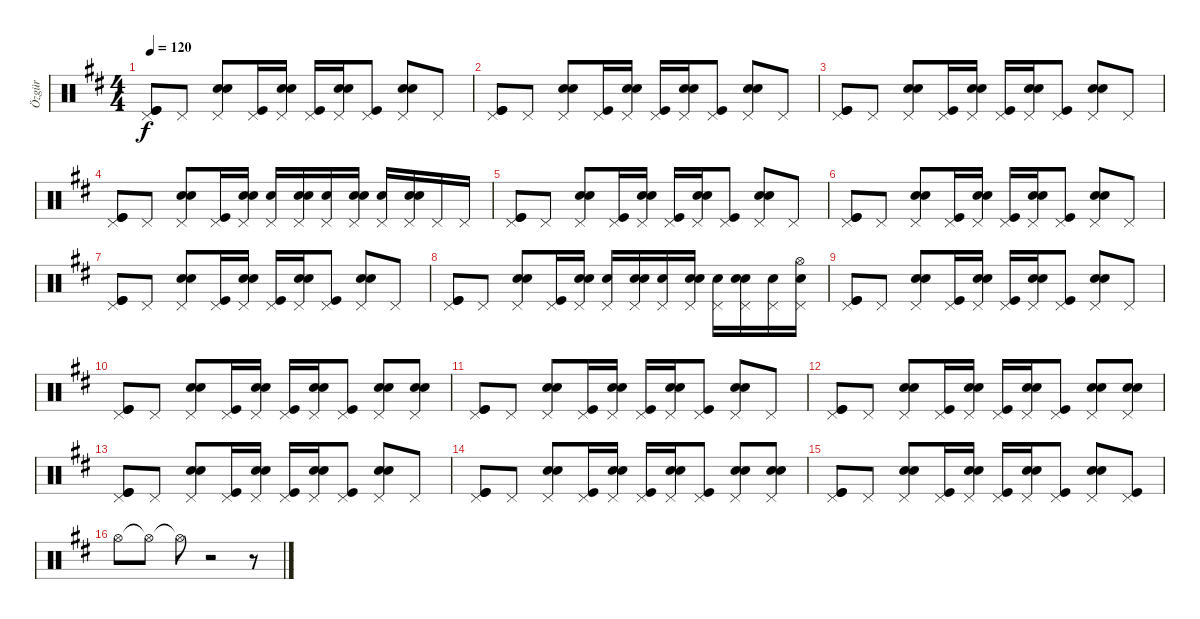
\track ("Özgür" "Özgür") {instrument percussion}
\staff {score}
\articulation defaults
\ts (4 4)
\tempo 120
\clef neutral
\ks d
("Pedal Hi-Hat (hit)" "Kick (hit)" "Kick (hit)").8{dy f} "Pedal Hi-Hat (hit)".8 ("Pedal Hi-Hat (hit)" "Electric Snare (hit)" "Electric Snare (hit)").8 ("Pedal Hi-Hat (hit)" "Kick (hit)").16 ("Pedal Hi-Hat (hit)" "Electric Snare (hit)" "Electric Snare (hit)").16 ("Pedal Hi-Hat (hit)" "Kick (hit)").16 ("Pedal Hi-Hat (hit)" "Electric Snare (hit)" "Electric Snare (hit)").16 ("Pedal Hi-Hat (hit)" "Kick (hit)").8 ("Pedal Hi-Hat (hit)" "Electric Snare (hit)" "Electric Snare (hit)").8 "Pedal Hi-Hat (hit)".8 |
("Pedal Hi-Hat (hit)" "Kick (hit)" "Kick (hit)").8 "Pedal Hi-Hat (hit)".8 ("Pedal Hi-Hat (hit)" "Electric Snare (hit)" "Electric Snare (hit)").8 ("Pedal Hi-Hat (hit)" "Kick (hit)").16 ("Pedal Hi-Hat (hit)" "Electric Snare (hit)" "Electric Snare (hit)").16 ("Pedal Hi-Hat (hit)" "Kick (hit)").16 ("Pedal Hi-Hat (hit)" "Electric Snare (hit)" "Electric Snare (hit)").16 ("Pedal Hi-Hat (hit)" "Kick (hit)").8 ("Pedal Hi-Hat (hit)" "Electric Snare (hit)" "Electric Snare (hit)").8 "Pedal Hi-Hat (hit)".8 |
("Pedal Hi-Hat (hit)" "Kick (hit)" "Kick (hit)").8 "Pedal Hi-Hat (hit)".8 ("Pedal Hi-Hat (hit)" "Electric Snare (hit)" "Electric Snare (hit)").8 ("Pedal Hi-Hat (hit)" "Kick (hit)").16 ("Pedal Hi-Hat (hit)" "Electric Snare (hit)" "Electric Snare (hit)").16 ("Pedal Hi-Hat (hit)" "Kick (hit)").16 ("Pedal Hi-Hat (hit)" "Electric Snare (hit)" "Electric Snare (hit)").16 ("Pedal Hi-Hat (hit)" "Kick (hit)").8 ("Pedal Hi-Hat (hit)" "Electric Snare (hit)" "Electric Snare (hit)").8 "Pedal Hi-Hat (hit)".8 |
("Pedal Hi-Hat (hit)" "Kick (hit)" "Kick (hit)").8 "Pedal Hi-Hat (hit)".8 ("Pedal Hi-Hat (hit)" "Electric Snare (hit)" "Electric Snare (hit)").8 ("Pedal Hi-Hat (hit)" "Kick (hit)").16 ("Pedal Hi-Hat (hit)" "Electric Snare (hit)" "Electric Snare (hit)").16 ("Pedal Hi-Hat (hit)" "Electric Snare (hit)").16 ("Pedal Hi-Hat (hit)" "Electric Snare (hit)" "Electric Snare (hit)").16 ("Pedal Hi-Hat (hit)" "Electric Snare (hit)").16 ("Pedal Hi-Hat (hit)" "Electric Snare (hit)" "Electric Snare (hit)").16 ("Pedal Hi-Hat (hit)" "Electric Snare (hit)").16 ("Pedal Hi-Hat (hit)" "Electric Snare (hit)" "Electric Snare (hit)").16 "Pedal Hi-Hat (hit)".16 "Pedal Hi-Hat (hit)".16 |
("Pedal Hi-Hat (hit)" "Kick (hit)" "Kick (hit)").8 "Pedal Hi-Hat (hit)".8 ("Pedal Hi-Hat (hit)" "Electric Snare (hit)" "Electric Snare (hit)").8 ("Pedal Hi-Hat (hit)" "Kick (hit)").16 ("Pedal Hi-Hat (hit)" "Electric Snare (hit)" "Electric Snare (hit)").16 ("Pedal Hi-Hat (hit)" "Kick (hit)").16 ("Pedal Hi-Hat (hit)" "Electric Snare (hit)" "Electric Snare (hit)").16 ("Pedal Hi-Hat (hit)" "Kick (hit)").8 ("Pedal Hi-Hat (hit)" "Electric Snare (hit)" "Electric Snare (hit)").8 "Pedal Hi-Hat (hit)".8 |
("Pedal Hi-Hat (hit)" "Kick (hit)" "Kick (hit)").8 "Pedal Hi-Hat (hit)".8 ("Pedal Hi-Hat (hit)" "Electric Snare (hit)" "Electric Snare (hit)").8 ("Pedal Hi-Hat (hit)" "Kick (hit)").16 ("Pedal Hi-Hat (hit)" "Electric Snare (hit)" "Electric Snare (hit)").16 ("Pedal Hi-Hat (hit)" "Kick (hit)").16 ("Pedal Hi-Hat (hit)" "Electric Snare (hit)" "Electric Snare (hit)").16 ("Pedal Hi-Hat (hit)" "Kick (hit)").8 ("Pedal Hi-Hat (hit)" "Electric Snare (hit)" "Electric Snare (hit)").8 "Pedal Hi-Hat (hit)".8 |
("Pedal Hi-Hat (hit)" "Kick (hit)" "Kick (hit)").8 "Pedal Hi-Hat (hit)".8 ("Pedal Hi-Hat (hit)" "Electric Snare (hit)" "Electric Snare (hit)").8 ("Pedal Hi-Hat (hit)" "Kick (hit)").16 ("Pedal Hi-Hat (hit)" "Electric Snare (hit)" "Electric Snare (hit)").16 ("Pedal Hi-Hat (hit)" "Kick (hit)").16 ("Pedal Hi-Hat (hit)" "Electric Snare (hit)" "Electric Snare (hit)").16 ("Pedal Hi-Hat (hit)" "Kick (hit)").8 ("Pedal Hi-Hat (hit)" "Electric Snare (hit)" "Electric Snare (hit)").8 "Pedal Hi-Hat (hit)".8 |
("Pedal Hi-Hat (hit)" "Kick (hit)" "Kick (hit)").8 "Pedal Hi-Hat (hit)".8 ("Pedal Hi-Hat (hit)" "Electric Snare (hit)" "Electric Snare (hit)").8 ("Pedal Hi-Hat (hit)" "Kick (hit)").16 ("Pedal Hi-Hat (hit)" "Electric Snare (hit)" "Electric Snare (hit)").16 ("Pedal Hi-Hat (hit)" "Electric Snare (hit)").16 ("Pedal Hi-Hat (hit)" "Electric Snare (hit)" "Electric Snare (hit)").16 ("Pedal Hi-Hat (hit)" "Electric Snare (hit)").16 ("Pedal Hi-Hat (hit)" "Electric Snare (hit)" "Electric Snare (hit)").16 ("Pedal Hi-Hat (hit)" "Electric Snare (hit)").16 ("Pedal Hi-Hat (hit)" "Electric Snare (hit)" "Electric Snare (hit)").16 ("Pedal Hi-Hat (hit)" "Electric Snare (hit)").16 ("Pedal Hi-Hat (hit)" "Hi-Hat (open)" "Electric Snare (hit)").16 |
("Pedal Hi-Hat (hit)" "Kick (hit)" "Kick (hit)").8 "Pedal Hi-Hat (hit)".8 ("Pedal Hi-Hat (hit)" "Electric Snare (hit)" "Electric Snare (hit)").8 ("Pedal Hi-Hat (hit)" "Kick (hit)").16 ("Pedal Hi-Hat (hit)" "Electric Snare (hit)" "Electric Snare (hit)").16 ("Pedal Hi-Hat (hit)" "Kick (hit)").16 ("Pedal Hi-Hat (hit)" "Electric Snare (hit)" "Electric Snare (hit)").16 ("Pedal Hi-Hat (hit)" "Kick (hit)").8 ("Pedal Hi-Hat (hit)" "Electric Snare (hit)" "Electric Snare (hit)").8 "Pedal Hi-Hat (hit)".8 |
("Pedal Hi-Hat (hit)" "Kick (hit)" "Kick (hit)").8 "Pedal Hi-Hat (hit)".8 ("Pedal Hi-Hat (hit)" "Electric Snare (hit)" "Electric Snare (hit)").8 ("Pedal Hi-Hat (hit)" "Kick (hit)").16 ("Pedal Hi-Hat (hit)" "Electric Snare (hit)" "Electric Snare (hit)").16 ("Pedal Hi-Hat (hit)" "Kick (hit)").16 ("Pedal Hi-Hat (hit)" "Electric Snare (hit)" "Electric Snare (hit)").16 ("Pedal Hi-Hat (hit)" "Kick (hit)").8 ("Pedal Hi-Hat (hit)" "Electric Snare (hit)" "Electric Snare (hit)").8 ("Pedal Hi-Hat (hit)" "Electric Snare (hit)" "Electric Snare (hit)").8 |
("Pedal Hi-Hat (hit)" "Kick (hit)" "Kick (hit)").8 "Pedal Hi-Hat (hit)".8 ("Pedal Hi-Hat (hit)" "Electric Snare (hit)" "Electric Snare (hit)").8 ("Pedal Hi-Hat (hit)" "Kick (hit)").16 ("Pedal Hi-Hat (hit)" "Electric Snare (hit)" "Electric Snare (hit)").16 ("Pedal Hi-Hat (hit)" "Kick (hit)").16 ("Pedal Hi-Hat (hit)" "Electric Snare (hit)" "Electric Snare (hit)").16 ("Pedal Hi-Hat (hit)" "Kick (hit)").8 ("Pedal Hi-Hat (hit)" "Electric Snare (hit)" "Electric Snare (hit)").8 "Pedal Hi-Hat (hit)".8 |
("Pedal Hi-Hat (hit)" "Kick (hit)" "Kick (hit)").8 "Pedal Hi-Hat (hit)".8 ("Pedal Hi-Hat (hit)" "Electric Snare (hit)" "Electric Snare (hit)").8 ("Pedal Hi-Hat (hit)" "Kick (hit)").16 ("Pedal Hi-Hat (hit)" "Electric Snare (hit)" "Electric Snare (hit)").16 ("Pedal Hi-Hat (hit)" "Kick (hit)").16 ("Pedal Hi-Hat (hit)" "Electric Snare (hit)" "Electric Snare (hit)").16 ("Pedal Hi-Hat (hit)" "Kick (hit)").8 ("Pedal Hi-Hat (hit)" "Electric Snare (hit)" "Electric Snare (hit)").8 ("Pedal Hi-Hat (hit)" "Electric Snare (hit)" "Electric Snare (hit)").8 |
("Pedal Hi-Hat (hit)" "Kick (hit)" "Kick (hit)").8 "Pedal Hi-Hat (hit)".8 ("Pedal Hi-Hat (hit)" "Electric Snare (hit)" "Electric Snare (hit)").8 ("Pedal Hi-Hat (hit)" "Kick (hit)").16 ("Pedal Hi-Hat (hit)" "Electric Snare (hit)" "Electric Snare (hit)").16 ("Pedal Hi-Hat (hit)" "Kick (hit)").16 ("Pedal Hi-Hat (hit)" "Electric Snare (hit)" "Electric Snare (hit)").16 ("Pedal Hi-Hat (hit)" "Kick (hit)").8 ("Pedal Hi-Hat (hit)" "Electric Snare (hit)" "Electric Snare (hit)").8 "Pedal Hi-Hat (hit)".8 |
("Pedal Hi-Hat (hit)" "Kick (hit)" "Kick (hit)").8 "Pedal Hi-Hat (hit)".8 ("Pedal Hi-Hat (hit)" "Electric Snare (hit)" "Electric Snare (hit)").8 ("Pedal Hi-Hat (hit)" "Kick (hit)").16 ("Pedal Hi-Hat (hit)" "Electric Snare (hit)" "Electric Snare (hit)").16 ("Pedal Hi-Hat (hit)" "Kick (hit)").16 ("Pedal Hi-Hat (hit)" "Electric Snare (hit)" "Electric Snare (hit)").16 ("Pedal Hi-Hat (hit)" "Kick (hit)").8 ("Pedal Hi-Hat (hit)" "Electric Snare (hit)" "Electric Snare (hit)").8 ("Pedal Hi-Hat (hit)" "Electric Snare (hit)" "Electric Snare (hit)").8 |
("Pedal Hi-Hat (hit)" "Kick (hit)" "Kick (hit)").8 "Pedal Hi-Hat (hit)".8 ("Pedal Hi-Hat (hit)" "Electric Snare (hit)" "Electric Snare (hit)").8 ("Pedal Hi-Hat (hit)" "Kick (hit)").16 ("Pedal Hi-Hat (hit)" "Electric Snare (hit)" "Electric Snare (hit)").16 ("Pedal Hi-Hat (hit)" "Kick (hit)").16 ("Pedal Hi-Hat (hit)" "Electric Snare (hit)" "Electric Snare (hit)").16 ("Pedal Hi-Hat (hit)" "Kick (hit)").8 ("Pedal Hi-Hat (hit)" "Electric Snare (hit)" "Electric Snare (hit)").8 ("Pedal Hi-Hat (hit)" "Kick (hit)").8 |
"Hi-Hat (open)".8 "Hi-Hat (open)"{t}.8 "Hi-Hat (open)"{t}.8 r.2 r.8
